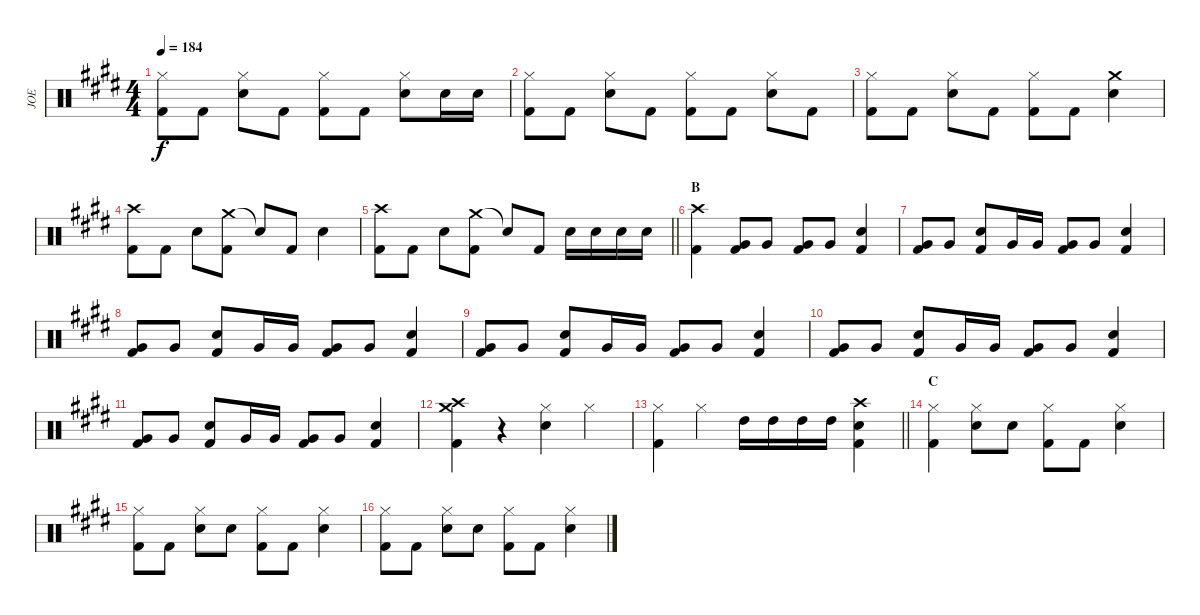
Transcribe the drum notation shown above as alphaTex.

\track ("JOE" "JOE") {instrument percussion}
\staff {score}
\articulation defaults
\ts (4 4)
\tempo 184
\clef neutral
\ks e
("Hi-Hat (closed)" "Kick (hit) 2").8{dy f} "Kick (hit) 2".8 ("Hi-Hat (closed)" "Snare (hit) 2").8 "Kick (hit) 2".8 ("Hi-Hat (closed)" "Kick (hit) 2").8 "Kick (hit) 2".8 ("Hi-Hat (closed)" "Snare (hit) 2").8 "Snare (hit) 2".16 "Snare (hit) 2".16 |
("Hi-Hat (closed)" "Kick (hit) 2").8 "Kick (hit) 2".8 ("Hi-Hat (closed)" "Snare (hit) 2").8 "Kick (hit) 2".8 ("Hi-Hat (closed)" "Kick (hit) 2").8 "Kick (hit) 2".8 ("Hi-Hat (closed)" "Snare (hit) 2").8 "Kick (hit) 2".8 |
("Hi-Hat (closed)" "Kick (hit) 2").8 "Kick (hit) 2".8 ("Hi-Hat (closed)" "Snare (hit) 2").8 "Kick (hit) 2".8 ("Hi-Hat (closed)" "Kick (hit) 2").8 "Kick (hit) 2".8 ("Crash medium (hit)" "Snare (hit) 2").4 |
("Crash high (hit)" "Kick (hit) 2").8 "Kick (hit) 2".8 "Snare (hit) 2".8 ("Crash medium (hit)" "Kick (hit) 2").8 "Snare (hit)"{t}.8 "Kick (hit) 2".8 "Snare (hit) 2".4 |
\barLineRight lightlight
("Crash high (hit)" "Kick (hit) 2").8 "Kick (hit) 2".8 "Snare (hit) 2".8 ("Crash medium (hit)" "Kick (hit) 2").8 "Snare (hit)"{t}.8 "Kick (hit) 2".8 "Snare (hit) 2".16 "Snare (hit) 2".16 "Snare (hit) 2".16 "Snare (hit) 2".16 |
\section ("" "B ")
("Crash high (hit)" "Kick (hit) 2").4 ("Kick (hit) 2" "Very Low Tom (hit)").8 "Very Low Tom (hit)".8 ("Kick (hit) 2" "Very Low Tom (hit)").8 "Very Low Tom (hit)".8 ("Snare (hit) 2" "Kick (hit) 2").4 |
("Kick (hit) 2" "Very Low Tom (hit)").8 "Very Low Tom (hit)".8 ("Kick (hit) 2" "Snare (hit) 2").8 "Very Low Tom (hit)".16 "Very Low Tom (hit)".16 ("Very Low Tom (hit)" "Kick (hit) 2").8 "Very Low Tom (hit)".8 ("Kick (hit) 2" "Snare (hit) 2").4 |
("Kick (hit) 2" "Very Low Tom (hit)").8 "Very Low Tom (hit)".8 ("Kick (hit) 2" "Snare (hit) 2").8 "Very Low Tom (hit)".16 "Very Low Tom (hit)".16 ("Very Low Tom (hit)" "Kick (hit) 2").8 "Very Low Tom (hit)".8 ("Kick (hit) 2" "Snare (hit) 2").4 |
("Kick (hit) 2" "Very Low Tom (hit)").8 "Very Low Tom (hit)".8 ("Kick (hit) 2" "Snare (hit) 2").8 "Very Low Tom (hit)".16 "Very Low Tom (hit)".16 ("Very Low Tom (hit)" "Kick (hit) 2").8 "Very Low Tom (hit)".8 ("Kick (hit) 2" "Snare (hit) 2").4 |
("Kick (hit) 2" "Very Low Tom (hit)").8 "Very Low Tom (hit)".8 ("Kick (hit) 2" "Snare (hit) 2").8 "Very Low Tom (hit)".16 "Very Low Tom (hit)".16 ("Very Low Tom (hit)" "Kick (hit) 2").8 "Very Low Tom (hit)".8 ("Kick (hit) 2" "Snare (hit) 2").4 |
("Kick (hit) 2" "Very Low Tom (hit)").8 "Very Low Tom (hit)".8 ("Kick (hit) 2" "Snare (hit) 2").8 "Very Low Tom (hit)".16 "Very Low Tom (hit)".16 ("Very Low Tom (hit)" "Kick (hit) 2").8 "Very Low Tom (hit)".8 ("Kick (hit) 2" "Snare (hit) 2").4 |
("Crash medium (hit)" "Crash high (hit)" "Kick (hit) 2").4 r.4 ("Hi-Hat (closed)" "Snare (hit) 2").4 "Hi-Hat (closed)".4 |
\barLineRight lightlight
("Hi-Hat (closed)" "Kick (hit) 2").4 "Hi-Hat (closed)".4 "High Tom (hit)".16 "High Tom (hit)".16 "High Tom (hit)".16 "High Tom (hit)".16 ("Crash high (hit)" "Kick (hit) 2" "Snare (hit) 2").4 |
\section ("" "C ")
("Hi-Hat (closed)" "Kick (hit) 2").4 ("Hi-Hat (closed)" "Snare (hit) 2").8 "Snare (hit) 2".8 ("Hi-Hat (closed)" "Kick (hit) 2").8 "Kick (hit) 2".8 ("Hi-Hat (closed)" "Snare (hit) 2").4 |
("Hi-Hat (closed)" "Kick (hit) 2").8 "Kick (hit) 2".8 ("Hi-Hat (closed)" "Snare (hit) 2").8 "Snare (hit) 2".8 ("Hi-Hat (closed)" "Kick (hit) 2").8 "Kick (hit) 2".8 ("Hi-Hat (closed)" "Snare (hit) 2").4 |
("Hi-Hat (closed)" "Kick (hit) 2").8 "Kick (hit) 2".8 ("Hi-Hat (closed)" "Snare (hit) 2").8 "Snare (hit) 2".8 ("Hi-Hat (closed)" "Kick (hit) 2").8 "Kick (hit) 2".8 ("Hi-Hat (closed)" "Snare (hit) 2").4
